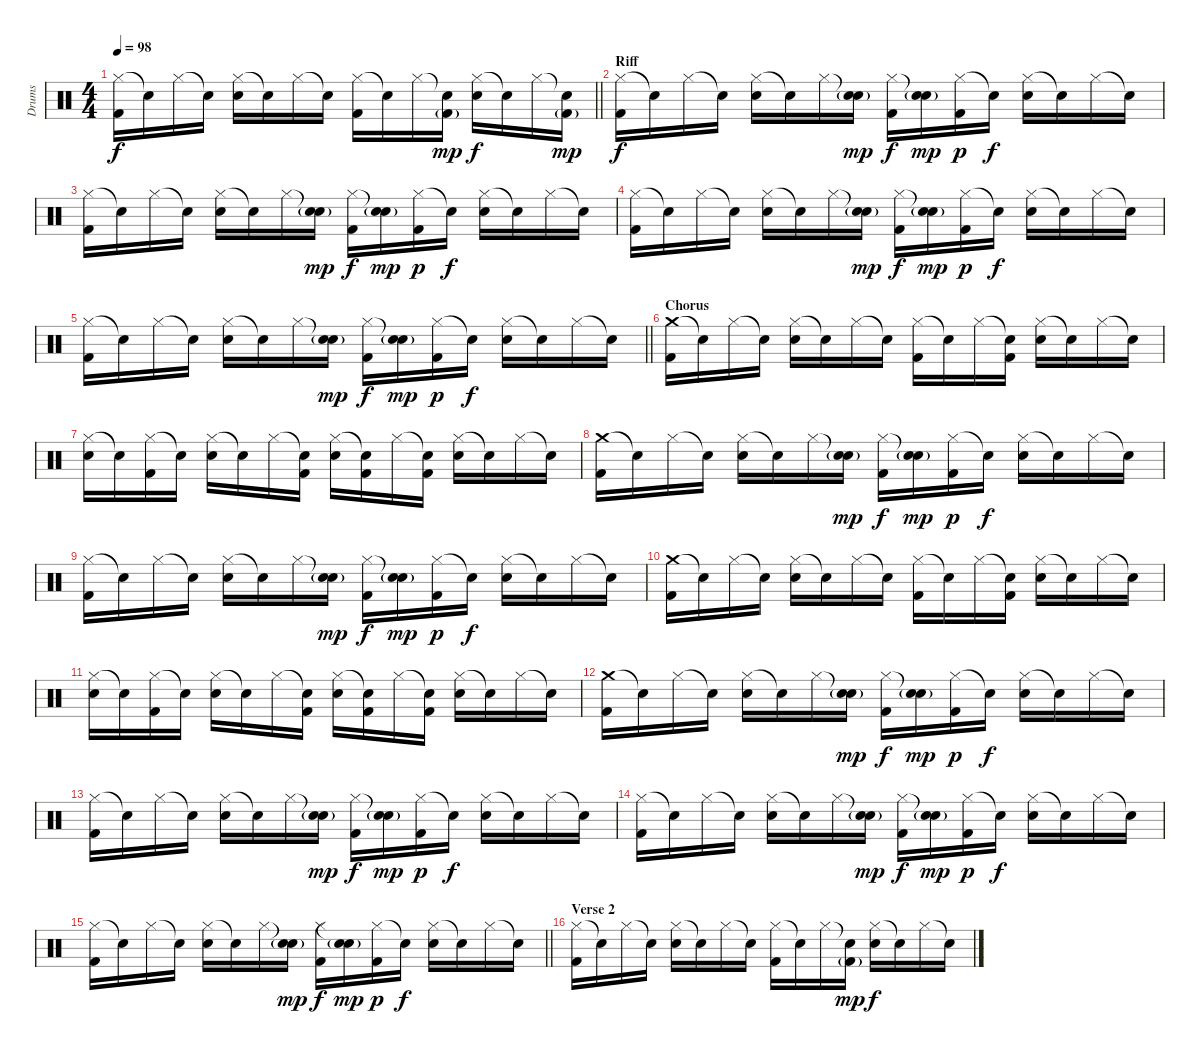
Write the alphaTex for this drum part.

\track ("Drums" "Drums") {instrument percussion}
\staff {score}
\articulation defaults
\ts (4 4)
\tempo 98
\clef neutral
\barLineRight lightlight
\ks c
("Hi-Hat (closed)" "Kick (hit) 2").16{dy f} "Snare (hit)"{t}.16 "Hi-Hat (closed)".16 "Snare (hit)"{t}.16 ("Hi-Hat (closed)" "Snare (hit) 2").16 "Snare (hit)"{t}.16 "Hi-Hat (closed)".16 "Snare (hit)"{t}.16 ("Hi-Hat (closed)" "Kick (hit) 2").16 "Snare (hit)"{t}.16 "Hi-Hat (closed)".16 ("Snare (hit)"{t} "Kick (hit) 2"{g}).16{dy mp} ("Hi-Hat (closed)" "Snare (hit) 2").16{dy f} "Snare (hit)"{t}.16 "Hi-Hat (closed)".16 ("Snare (hit)"{t} "Kick (hit) 2"{g}).16{dy mp} |
\section ("" "Riff")
("Hi-Hat (closed)" "Kick (hit) 2").16{dy f} "Snare (hit)"{t}.16 "Hi-Hat (closed)".16 "Snare (hit)"{t}.16 ("Hi-Hat (closed)" "Snare (hit) 2").16 "Snare (hit)"{t}.16 "Hi-Hat (closed)".16 ("Snare (hit)"{t} "Snare (hit) 2"{g}).16{dy mp} ("Hi-Hat (closed)" "Kick (hit) 2").16{dy f} ("Snare (hit)"{t} "Snare (hit) 2"{g}).16{dy mp} ("Hi-Hat (closed)" "Kick (hit) 2").16{dy p} "Snare (hit)"{t}.16{dy f} ("Hi-Hat (closed)" "Snare (hit) 2").16 "Snare (hit)"{t}.16 "Hi-Hat (closed)".16 "Snare (hit)"{t}.16 |
("Hi-Hat (closed)" "Kick (hit) 2").16 "Snare (hit)"{t}.16 "Hi-Hat (closed)".16 "Snare (hit)"{t}.16 ("Hi-Hat (closed)" "Snare (hit) 2").16 "Snare (hit)"{t}.16 "Hi-Hat (closed)".16 ("Snare (hit)"{t} "Snare (hit) 2"{g}).16{dy mp} ("Hi-Hat (closed)" "Kick (hit) 2").16{dy f} ("Snare (hit)"{t} "Snare (hit) 2"{g}).16{dy mp} ("Hi-Hat (closed)" "Kick (hit) 2").16{dy p} "Snare (hit)"{t}.16{dy f} ("Hi-Hat (closed)" "Snare (hit) 2").16 "Snare (hit)"{t}.16 "Hi-Hat (closed)".16 "Snare (hit)"{t}.16 |
("Hi-Hat (closed)" "Kick (hit) 2").16 "Snare (hit)"{t}.16 "Hi-Hat (closed)".16 "Snare (hit)"{t}.16 ("Hi-Hat (closed)" "Snare (hit) 2").16 "Snare (hit)"{t}.16 "Hi-Hat (closed)".16 ("Snare (hit)"{t} "Snare (hit) 2"{g}).16{dy mp} ("Hi-Hat (closed)" "Kick (hit) 2").16{dy f} ("Snare (hit)"{t} "Snare (hit) 2"{g}).16{dy mp} ("Hi-Hat (closed)" "Kick (hit) 2").16{dy p} "Snare (hit)"{t}.16{dy f} ("Hi-Hat (closed)" "Snare (hit) 2").16 "Snare (hit)"{t}.16 "Hi-Hat (closed)".16 "Snare (hit)"{t}.16 |
\barLineRight lightlight
("Hi-Hat (closed)" "Kick (hit) 2").16 "Snare (hit)"{t}.16 "Hi-Hat (closed)".16 "Snare (hit)"{t}.16 ("Hi-Hat (closed)" "Snare (hit) 2").16 "Snare (hit)"{t}.16 "Hi-Hat (closed)".16 ("Snare (hit)"{t} "Snare (hit) 2"{g}).16{dy mp} ("Hi-Hat (closed)" "Kick (hit) 2").16{dy f} ("Snare (hit)"{t} "Snare (hit) 2"{g}).16{dy mp} ("Hi-Hat (closed)" "Kick (hit) 2").16{dy p} "Snare (hit)"{t}.16{dy f} ("Hi-Hat (closed)" "Snare (hit) 2").16 "Snare (hit)"{t}.16 "Hi-Hat (closed)".16 "Snare (hit)"{t}.16 |
\section ("" "Chorus")
("Crash medium (hit)" "Kick (hit) 2").16 "Snare (hit)"{t}.16 "Hi-Hat (closed)".16 "Snare (hit)"{t}.16 ("Hi-Hat (closed)" "Snare (hit) 2").16 "Snare (hit)"{t}.16 "Hi-Hat (closed)".16 "Snare (hit)"{t}.16 ("Hi-Hat (closed)" "Kick (hit) 2").16 "Snare (hit)"{t}.16 "Hi-Hat (closed)".16 ("Snare (hit)"{t} "Kick (hit) 2").16 ("Hi-Hat (closed)" "Snare (hit) 2").16 "Snare (hit)"{t}.16 "Hi-Hat (closed)".16 "Snare (hit)"{t}.16 |
("Hi-Hat (closed)" "Snare (hit) 2").16 "Snare (hit)"{t}.16 ("Hi-Hat (closed)" "Kick (hit) 2").16 "Snare (hit)"{t}.16 ("Hi-Hat (closed)" "Snare (hit) 2").16 "Snare (hit)"{t}.16 "Hi-Hat (closed)".16 ("Snare (hit)"{t} "Kick (hit) 2").16 ("Hi-Hat (closed)" "Snare (hit) 2").16 ("Snare (hit)"{t} "Kick (hit) 2").16 "Hi-Hat (closed)".16 ("Snare (hit)"{t} "Kick (hit) 2").16 ("Hi-Hat (closed)" "Snare (hit) 2").16 "Snare (hit)"{t}.16 "Hi-Hat (closed)".16 "Snare (hit)"{t}.16 |
("Crash medium (hit)" "Kick (hit) 2").16 "Snare (hit)"{t}.16 "Hi-Hat (closed)".16 "Snare (hit)"{t}.16 ("Hi-Hat (closed)" "Snare (hit) 2").16 "Snare (hit)"{t}.16 "Hi-Hat (closed)".16 ("Snare (hit)"{t} "Snare (hit) 2"{g}).16{dy mp} ("Hi-Hat (closed)" "Kick (hit) 2").16{dy f} ("Snare (hit)"{t} "Snare (hit) 2"{g}).16{dy mp} ("Hi-Hat (closed)" "Kick (hit) 2").16{dy p} "Snare (hit)"{t}.16{dy f} ("Hi-Hat (closed)" "Snare (hit) 2").16 "Snare (hit)"{t}.16 "Hi-Hat (closed)".16 "Snare (hit)"{t}.16 |
("Hi-Hat (closed)" "Kick (hit) 2").16 "Snare (hit)"{t}.16 "Hi-Hat (closed)".16 "Snare (hit)"{t}.16 ("Hi-Hat (closed)" "Snare (hit) 2").16 "Snare (hit)"{t}.16 "Hi-Hat (closed)".16 ("Snare (hit)"{t} "Snare (hit) 2"{g}).16{dy mp} ("Hi-Hat (closed)" "Kick (hit) 2").16{dy f} ("Snare (hit)"{t} "Snare (hit) 2"{g}).16{dy mp} ("Hi-Hat (closed)" "Kick (hit) 2").16{dy p} "Snare (hit)"{t}.16{dy f} ("Hi-Hat (closed)" "Snare (hit) 2").16 "Snare (hit)"{t}.16 "Hi-Hat (closed)".16 "Snare (hit)"{t}.16 |
("Crash medium (hit)" "Kick (hit) 2").16 "Snare (hit)"{t}.16 "Hi-Hat (closed)".16 "Snare (hit)"{t}.16 ("Hi-Hat (closed)" "Snare (hit) 2").16 "Snare (hit)"{t}.16 "Hi-Hat (closed)".16 "Snare (hit)"{t}.16 ("Hi-Hat (closed)" "Kick (hit) 2").16 "Snare (hit)"{t}.16 "Hi-Hat (closed)".16 ("Snare (hit)"{t} "Kick (hit) 2").16 ("Hi-Hat (closed)" "Snare (hit) 2").16 "Snare (hit)"{t}.16 "Hi-Hat (closed)".16 "Snare (hit)"{t}.16 |
("Hi-Hat (closed)" "Snare (hit) 2").16 "Snare (hit)"{t}.16 ("Hi-Hat (closed)" "Kick (hit) 2").16 "Snare (hit)"{t}.16 ("Hi-Hat (closed)" "Snare (hit) 2").16 "Snare (hit)"{t}.16 "Hi-Hat (closed)".16 ("Snare (hit)"{t} "Kick (hit) 2").16 ("Hi-Hat (closed)" "Snare (hit) 2").16 ("Snare (hit)"{t} "Kick (hit) 2").16 "Hi-Hat (closed)".16 ("Snare (hit)"{t} "Kick (hit) 2").16 ("Hi-Hat (closed)" "Snare (hit) 2").16 "Snare (hit)"{t}.16 "Hi-Hat (closed)".16 "Snare (hit)"{t}.16 |
("Crash medium (hit)" "Kick (hit) 2").16 "Snare (hit)"{t}.16 "Hi-Hat (closed)".16 "Snare (hit)"{t}.16 ("Hi-Hat (closed)" "Snare (hit) 2").16 "Snare (hit)"{t}.16 "Hi-Hat (closed)".16 ("Snare (hit)"{t} "Snare (hit) 2"{g}).16{dy mp} ("Hi-Hat (closed)" "Kick (hit) 2").16{dy f} ("Snare (hit)"{t} "Snare (hit) 2"{g}).16{dy mp} ("Hi-Hat (closed)" "Kick (hit) 2").16{dy p} "Snare (hit)"{t}.16{dy f} ("Hi-Hat (closed)" "Snare (hit) 2").16 "Snare (hit)"{t}.16 "Hi-Hat (closed)".16 "Snare (hit)"{t}.16 |
("Hi-Hat (closed)" "Kick (hit) 2").16 "Snare (hit)"{t}.16 "Hi-Hat (closed)".16 "Snare (hit)"{t}.16 ("Hi-Hat (closed)" "Snare (hit) 2").16 "Snare (hit)"{t}.16 "Hi-Hat (closed)".16 ("Snare (hit)"{t} "Snare (hit) 2"{g}).16{dy mp} ("Hi-Hat (closed)" "Kick (hit) 2").16{dy f} ("Snare (hit)"{t} "Snare (hit) 2"{g}).16{dy mp} ("Hi-Hat (closed)" "Kick (hit) 2").16{dy p} "Snare (hit)"{t}.16{dy f} ("Hi-Hat (closed)" "Snare (hit) 2").16 "Snare (hit)"{t}.16 "Hi-Hat (closed)".16 "Snare (hit)"{t}.16 |
("Hi-Hat (closed)" "Kick (hit) 2").16 "Snare (hit)"{t}.16 "Hi-Hat (closed)".16 "Snare (hit)"{t}.16 ("Hi-Hat (closed)" "Snare (hit) 2").16 "Snare (hit)"{t}.16 "Hi-Hat (closed)".16 ("Snare (hit)"{t} "Snare (hit) 2"{g}).16{dy mp} ("Hi-Hat (closed)" "Kick (hit) 2").16{dy f} ("Snare (hit)"{t} "Snare (hit) 2"{g}).16{dy mp} ("Hi-Hat (closed)" "Kick (hit) 2").16{dy p} "Snare (hit)"{t}.16{dy f} ("Hi-Hat (closed)" "Snare (hit) 2").16 "Snare (hit)"{t}.16 "Hi-Hat (closed)".16 "Snare (hit)"{t}.16 |
\barLineRight lightlight
("Hi-Hat (closed)" "Kick (hit) 2").16 "Snare (hit)"{t}.16 "Hi-Hat (closed)".16 "Snare (hit)"{t}.16 ("Hi-Hat (closed)" "Snare (hit) 2").16 "Snare (hit)"{t}.16 "Hi-Hat (closed)".16 ("Snare (hit)"{t} "Snare (hit) 2"{g}).16{dy mp} ("Hi-Hat (closed)" "Kick (hit) 2").16{dy f} ("Snare (hit)"{t} "Snare (hit) 2"{g}).16{dy mp} ("Hi-Hat (closed)" "Kick (hit) 2").16{dy p} "Snare (hit)"{t}.16{dy f} ("Hi-Hat (closed)" "Snare (hit) 2").16 "Snare (hit)"{t}.16 "Hi-Hat (closed)".16 "Snare (hit)"{t}.16 |
\section ("" "Verse 2")
("Hi-Hat (closed)" "Kick (hit) 2").16 "Snare (hit)"{t}.16 "Hi-Hat (closed)".16 "Snare (hit)"{t}.16 ("Hi-Hat (closed)" "Snare (hit) 2").16 "Snare (hit)"{t}.16 "Hi-Hat (closed)".16 "Snare (hit)"{t}.16 ("Hi-Hat (closed)" "Kick (hit) 2").16 "Snare (hit)"{t}.16 "Hi-Hat (closed)".16 ("Snare (hit)"{t} "Kick (hit) 2"{g}).16{dy mp} ("Hi-Hat (closed)" "Snare (hit) 2").16{dy f} "Snare (hit)"{t}.16 "Hi-Hat (closed)".16 "Snare (hit)"{t}.16
